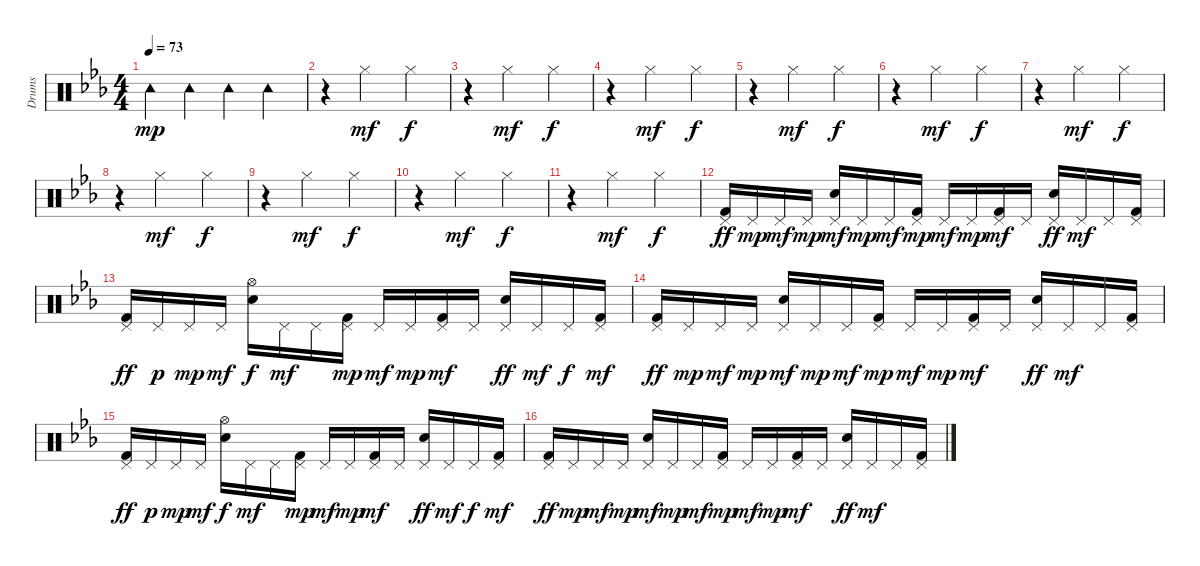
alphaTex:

\track ("Drums" "Drums") {instrument percussion}
\staff {score}
\articulation defaults
\ts (4 4)
\tempo 73
\clef neutral
\ks eb "Tambourine (hit)".4{dy mp} "Tambourine (hit)".4 "Tambourine (hit)".4 "Tambourine (hit)".4
|
r.4 "Hi-Hat (closed)".2{dy mf} "Hi-Hat (closed)".4{dy f} |
r.4 "Hi-Hat (closed)".2{dy mf} "Hi-Hat (closed)".4{dy f} |
r.4 "Hi-Hat (closed)".2{dy mf} "Hi-Hat (closed)".4{dy f} |
r.4 "Hi-Hat (closed)".2{dy mf} "Hi-Hat (closed)".4{dy f} |
r.4 "Hi-Hat (closed)".2{dy mf} "Hi-Hat (closed)".4{dy f} |
r.4 "Hi-Hat (closed)".2{dy mf} "Hi-Hat (closed)".4{dy f} |
r.4 "Hi-Hat (closed)".2{dy mf} "Hi-Hat (closed)".4{dy f} |
r.4 "Hi-Hat (closed)".2{dy mf} "Hi-Hat (closed)".4{dy f} |
r.4 "Hi-Hat (closed)".2{dy mf} "Hi-Hat (closed)".4{dy f} |
r.4 "Hi-Hat (closed)".2{dy mf} "Hi-Hat (closed)".4{dy f} |
("Kick (hit) 2" "Pedal Hi-Hat (hit)").16{dy ff} "Pedal Hi-Hat (hit)".16{dy mp} "Pedal Hi-Hat (hit)".16{dy mf} "Pedal Hi-Hat (hit)".16{dy mp} ("Snare (hit) 2" "Pedal Hi-Hat (hit)").16{dy mf} "Pedal Hi-Hat (hit)".16{dy mp} "Pedal Hi-Hat (hit)".16{dy mf} ("Kick (hit) 2" "Pedal Hi-Hat (hit)").16{dy mp} "Pedal Hi-Hat (hit)".16{dy mf} "Pedal Hi-Hat (hit)".16{dy mp} ("Kick (hit) 2" "Pedal Hi-Hat (hit)").16{dy mf} "Pedal Hi-Hat (hit)".16 ("Snare (hit) 2" "Pedal Hi-Hat (hit)").16{dy ff} "Pedal Hi-Hat (hit)".16{dy mf} "Pedal Hi-Hat (hit)".16 ("Kick (hit) 2" "Pedal Hi-Hat (hit)").16 |
("Kick (hit) 2" "Pedal Hi-Hat (hit)").16{dy ff} "Pedal Hi-Hat (hit)".16{dy p} "Pedal Hi-Hat (hit)".16{dy mp} "Pedal Hi-Hat (hit)".16{dy mf} ("Snare (hit) 2" "Hi-Hat (open)").16{dy f} "Pedal Hi-Hat (hit)".16{dy mf} "Pedal Hi-Hat (hit)".16 ("Kick (hit) 2" "Pedal Hi-Hat (hit)").16{dy mp} "Pedal Hi-Hat (hit)".16{dy mf} "Pedal Hi-Hat (hit)".16{dy mp} ("Kick (hit) 2" "Pedal Hi-Hat (hit)").16{dy mf} "Pedal Hi-Hat (hit)".16 ("Snare (hit) 2" "Pedal Hi-Hat (hit)").16{dy ff} "Pedal Hi-Hat (hit)".16{dy mf} "Pedal Hi-Hat (hit)".16{dy f} ("Kick (hit) 2" "Pedal Hi-Hat (hit)").16{dy mf} |
("Kick (hit) 2" "Pedal Hi-Hat (hit)").16{dy ff} "Pedal Hi-Hat (hit)".16{dy mp} "Pedal Hi-Hat (hit)".16{dy mf} "Pedal Hi-Hat (hit)".16{dy mp} ("Snare (hit) 2" "Pedal Hi-Hat (hit)").16{dy mf} "Pedal Hi-Hat (hit)".16{dy mp} "Pedal Hi-Hat (hit)".16{dy mf} ("Kick (hit) 2" "Pedal Hi-Hat (hit)").16{dy mp} "Pedal Hi-Hat (hit)".16{dy mf} "Pedal Hi-Hat (hit)".16{dy mp} ("Kick (hit) 2" "Pedal Hi-Hat (hit)").16{dy mf} "Pedal Hi-Hat (hit)".16 ("Snare (hit) 2" "Pedal Hi-Hat (hit)").16{dy ff} "Pedal Hi-Hat (hit)".16{dy mf} "Pedal Hi-Hat (hit)".16 ("Kick (hit) 2" "Pedal Hi-Hat (hit)").16 |
("Kick (hit) 2" "Pedal Hi-Hat (hit)").16{dy ff} "Pedal Hi-Hat (hit)".16{dy p} "Pedal Hi-Hat (hit)".16{dy mp} "Pedal Hi-Hat (hit)".16{dy mf} ("Snare (hit) 2" "Hi-Hat (open)").16{dy f} "Pedal Hi-Hat (hit)".16{dy mf} "Pedal Hi-Hat (hit)".16 ("Kick (hit) 2" "Pedal Hi-Hat (hit)").16{dy mp} "Pedal Hi-Hat (hit)".16{dy mf} "Pedal Hi-Hat (hit)".16{dy mp} ("Kick (hit) 2" "Pedal Hi-Hat (hit)").16{dy mf} "Pedal Hi-Hat (hit)".16 ("Snare (hit) 2" "Pedal Hi-Hat (hit)").16{dy ff} "Pedal Hi-Hat (hit)".16{dy mf} "Pedal Hi-Hat (hit)".16{dy f} ("Kick (hit) 2" "Pedal Hi-Hat (hit)").16{dy mf} |
("Kick (hit) 2" "Pedal Hi-Hat (hit)").16{dy ff} "Pedal Hi-Hat (hit)".16{dy mp} "Pedal Hi-Hat (hit)".16{dy mf} "Pedal Hi-Hat (hit)".16{dy mp} ("Snare (hit) 2" "Pedal Hi-Hat (hit)").16{dy mf} "Pedal Hi-Hat (hit)".16{dy mp} "Pedal Hi-Hat (hit)".16{dy mf} ("Kick (hit) 2" "Pedal Hi-Hat (hit)").16{dy mp} "Pedal Hi-Hat (hit)".16{dy mf} "Pedal Hi-Hat (hit)".16{dy mp} ("Kick (hit) 2" "Pedal Hi-Hat (hit)").16{dy mf} "Pedal Hi-Hat (hit)".16 ("Snare (hit) 2" "Pedal Hi-Hat (hit)").16{dy ff} "Pedal Hi-Hat (hit)".16{dy mf} "Pedal Hi-Hat (hit)".16 ("Kick (hit) 2" "Pedal Hi-Hat (hit)").16
